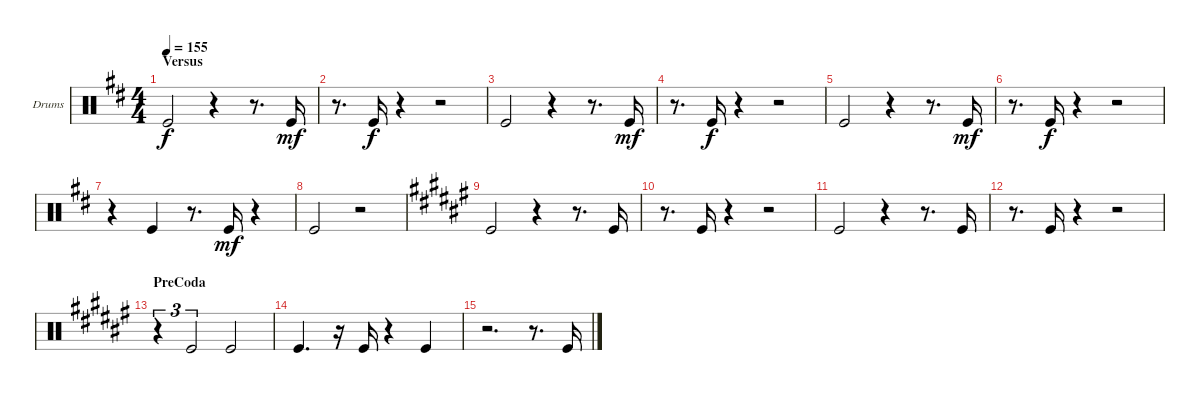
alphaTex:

\bracketExtendMode groupsimilarinstruments
\firstSystemTrackNameOrientation horizontal
\otherSystemsTrackNameOrientation horizontal
\track ("Kick" "Drums") {instrument percussion}
\staff {score}
\articulation defaults
\ts (4 4)
\section ("" "Versus")
\tempo 155
\clef neutral
\ks d "Kick (hit)".2{dy f}
r.4 r.8{d} "Kick (hit)".16{dy mf} |
r.8{d} "Kick (hit)".16{dy f} r.4 r.2 |
"Kick (hit)".2 r.4 r.8{d} "Kick (hit)".16{dy mf} |
r.8{d} "Kick (hit)".16{dy f} r.4 r.2 |
"Kick (hit)".2 r.4 r.8{d} "Kick (hit)".16{dy mf} |
r.8{d} "Kick (hit)".16{dy f} r.4 r.2 |
r.4 "Kick (hit)".4 r.8{d} "Kick (hit)".16{dy mf} r.4 |
"Kick (hit)".2 r.2 |
\ks f# "Kick (hit)".2
r.4 r.8{d} "Kick (hit)".16 |
r.8{d} "Kick (hit)".16 r.4 r.2 |
"Kick (hit)".2 r.4 r.8{d} "Kick (hit)".16 |
r.8{d} "Kick (hit)".16 r.4 r.2 |
\section ("" "PreCoda")
r.4{tu (3 2)} "Kick (hit)".2{tu (3 2)} "Kick (hit)".2 |
"Kick (hit)".4{d} r.16 "Kick (hit)".16 r.4 "Kick (hit)".4 |
r.2{d} r.8{d} "Kick (hit)".16
